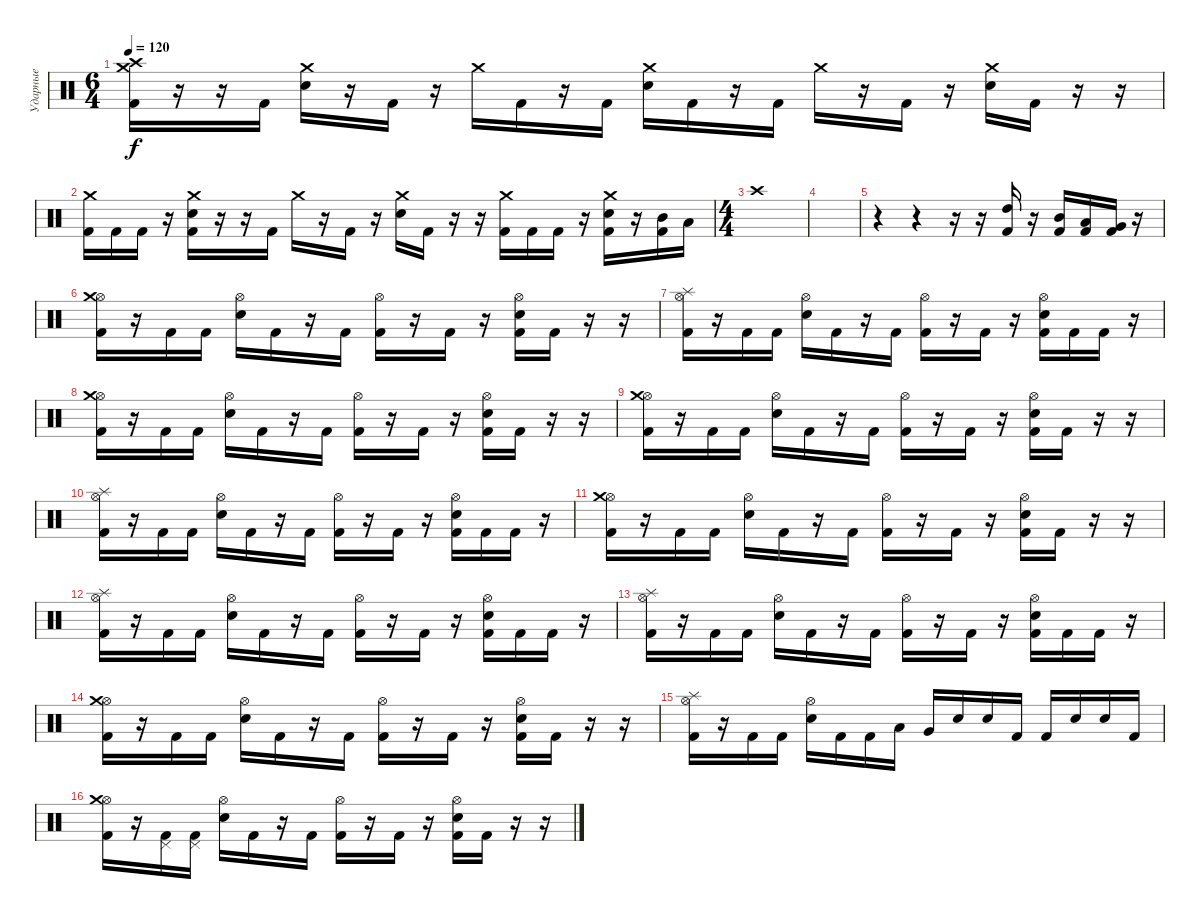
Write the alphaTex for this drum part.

\track ("Ударные" "Ударные") {instrument percussion}
\staff {score}
\articulation defaults
\ts (6 4)
\tempo 120
\clef neutral
\ks c
("Crash medium (hit)" "Crash high (hit)" "Kick (hit) 2").16{dy f} r.16 r.16 "Kick (hit) 2".16 ("Crash medium (hit)" "Electric Snare (hit)").16 r.16 "Kick (hit) 2".16 r.16 "Crash medium (hit)".16 "Kick (hit) 2".16 r.16 "Kick (hit) 2".16 ("Crash medium (hit)" "Electric Snare (hit)").16 "Kick (hit) 2".16 r.16 "Kick (hit) 2".16 "Crash medium (hit)".16 r.16 "Kick (hit) 2".16 r.16 ("Crash medium (hit)" "Electric Snare (hit)").16 "Kick (hit) 2".16 r.16 r.16 |
("Crash medium (hit)" "Kick (hit) 2").16 "Kick (hit) 2".16 "Kick (hit) 2".16 r.16 ("Crash medium (hit)" "Electric Snare (hit)" "Kick (hit) 2").16 r.16 r.16 "Kick (hit) 2".16 "Crash medium (hit)".16 r.16 "Kick (hit) 2".16 r.16 ("Crash medium (hit)" "Electric Snare (hit)").16 "Kick (hit) 2".16 r.16 r.16 ("Crash medium (hit)" "Kick (hit) 2").16 "Kick (hit) 2".16 "Kick (hit) 2".16 r.16 ("Crash medium (hit)" "Electric Snare (hit)" "Kick (hit) 2").16 r.16 ("Mid Tom (hit)" "Kick (hit) 2").16 "Low Tom (hit)".16 |
\ts (4 4)
"Crash high (hit)".1 |
|
r.4 r.4 r.16 r.16 ("High Tom (hit)" "Kick (hit) 2").16 r.16 ("Mid Tom (hit)" "Kick (hit) 2").16 ("Low Tom (hit)" "Kick (hit) 2").16 ("Very Low Tom (hit)" "Kick (hit) 2").16 r.16 |
("Hi-Hat (open)" "Crash medium (hit)" "Kick (hit) 2").16 r.16 "Kick (hit) 2".16 "Kick (hit) 2".16 ("Hi-Hat (open)" "Electric Snare (hit)").16 "Kick (hit) 2".16 r.16 "Kick (hit) 2".16 ("Hi-Hat (open)" "Kick (hit) 2").16 r.16 "Kick (hit) 2".16 r.16 ("Hi-Hat (open)" "Electric Snare (hit)" "Kick (hit) 2").16 "Kick (hit) 2".16 r.16 r.16 |
("Hi-Hat (open)" "Splash (hit)" "Kick (hit) 2").16 r.16 "Kick (hit) 2".16 "Kick (hit) 2".16 ("Hi-Hat (open)" "Electric Snare (hit)").16 "Kick (hit) 2".16 r.16 "Kick (hit) 2".16 ("Hi-Hat (open)" "Kick (hit) 2").16 r.16 "Kick (hit) 2".16 r.16 ("Hi-Hat (open)" "Electric Snare (hit)" "Kick (hit) 2").16 "Kick (hit) 2".16 "Kick (hit) 2".16 r.16 |
("Hi-Hat (open)" "Crash medium (hit)" "Kick (hit) 2").16 r.16 "Kick (hit) 2".16 "Kick (hit) 2".16 ("Hi-Hat (open)" "Electric Snare (hit)").16 "Kick (hit) 2".16 r.16 "Kick (hit) 2".16 ("Hi-Hat (open)" "Kick (hit) 2").16 r.16 "Kick (hit) 2".16 r.16 ("Hi-Hat (open)" "Electric Snare (hit)" "Kick (hit) 2").16 "Kick (hit) 2".16 r.16 r.16 |
("Hi-Hat (open)" "Crash medium (hit)" "Kick (hit) 2").16 r.16 "Kick (hit) 2".16 "Kick (hit) 2".16 ("Hi-Hat (open)" "Electric Snare (hit)").16 "Kick (hit) 2".16 r.16 "Kick (hit) 2".16 ("Hi-Hat (open)" "Kick (hit) 2").16 r.16 "Kick (hit) 2".16 r.16 ("Hi-Hat (open)" "Electric Snare (hit)" "Kick (hit) 2").16 "Kick (hit) 2".16 r.16 r.16 |
("Hi-Hat (open)" "Splash (hit)" "Kick (hit) 2").16 r.16 "Kick (hit) 2".16 "Kick (hit) 2".16 ("Hi-Hat (open)" "Electric Snare (hit)").16 "Kick (hit) 2".16 r.16 "Kick (hit) 2".16 ("Hi-Hat (open)" "Kick (hit) 2").16 r.16 "Kick (hit) 2".16 r.16 ("Hi-Hat (open)" "Electric Snare (hit)" "Kick (hit) 2").16 "Kick (hit) 2".16 "Kick (hit) 2".16 r.16 |
("Hi-Hat (open)" "Crash medium (hit)" "Kick (hit) 2").16 r.16 "Kick (hit) 2".16 "Kick (hit) 2".16 ("Hi-Hat (open)" "Electric Snare (hit)").16 "Kick (hit) 2".16 r.16 "Kick (hit) 2".16 ("Hi-Hat (open)" "Kick (hit) 2").16 r.16 "Kick (hit) 2".16 r.16 ("Hi-Hat (open)" "Electric Snare (hit)" "Kick (hit) 2").16 "Kick (hit) 2".16 r.16 r.16 |
("Hi-Hat (open)" "Splash (hit)" "Kick (hit) 2").16 r.16 "Kick (hit) 2".16 "Kick (hit) 2".16 ("Hi-Hat (open)" "Electric Snare (hit)").16 "Kick (hit) 2".16 r.16 "Kick (hit) 2".16 ("Hi-Hat (open)" "Kick (hit) 2").16 r.16 "Kick (hit) 2".16 r.16 ("Hi-Hat (open)" "Electric Snare (hit)" "Kick (hit) 2").16 "Kick (hit) 2".16 "Kick (hit) 2".16 r.16 |
("Hi-Hat (open)" "Splash (hit)" "Kick (hit) 2").16 r.16 "Kick (hit) 2".16 "Kick (hit) 2".16 ("Hi-Hat (open)" "Electric Snare (hit)").16 "Kick (hit) 2".16 r.16 "Kick (hit) 2".16 ("Hi-Hat (open)" "Kick (hit) 2").16 r.16 "Kick (hit) 2".16 r.16 ("Hi-Hat (open)" "Electric Snare (hit)" "Kick (hit) 2").16 "Kick (hit) 2".16 "Kick (hit) 2".16 r.16 |
("Hi-Hat (open)" "Crash medium (hit)" "Kick (hit) 2").16 r.16 "Kick (hit) 2".16 "Kick (hit) 2".16 ("Hi-Hat (open)" "Electric Snare (hit)").16 "Kick (hit) 2".16 r.16 "Kick (hit) 2".16 ("Hi-Hat (open)" "Kick (hit) 2").16 r.16 "Kick (hit) 2".16 r.16 ("Hi-Hat (open)" "Electric Snare (hit)" "Kick (hit) 2").16 "Kick (hit) 2".16 r.16 r.16 |
("Hi-Hat (open)" "Splash (hit)" "Kick (hit) 2").16 r.16 "Kick (hit) 2".16 "Kick (hit) 2".16 ("Hi-Hat (open)" "Electric Snare (hit)").16 "Kick (hit) 2".16 "Kick (hit) 2".16 "Low Tom (hit)".16 "Very Low Tom (hit)".16 "Electric Snare (hit)".16 "Electric Snare (hit)".16 "Kick (hit) 2".16 "Kick (hit) 2".16 "Electric Snare (hit)".16 "Electric Snare (hit)".16 "Kick (hit) 2".16 |
("Hi-Hat (open)" "Crash medium (hit)" "Kick (hit) 2").16 r.16 ("Pedal Hi-Hat (hit)" "Kick (hit) 2").16 ("Pedal Hi-Hat (hit)" "Kick (hit) 2").16 ("Hi-Hat (open)" "Electric Snare (hit)").16 "Kick (hit) 2".16 r.16 "Kick (hit) 2".16 ("Hi-Hat (open)" "Kick (hit) 2").16 r.16 "Kick (hit) 2".16 r.16 ("Hi-Hat (open)" "Electric Snare (hit)" "Kick (hit) 2").16 "Kick (hit) 2".16 r.16 r.16
